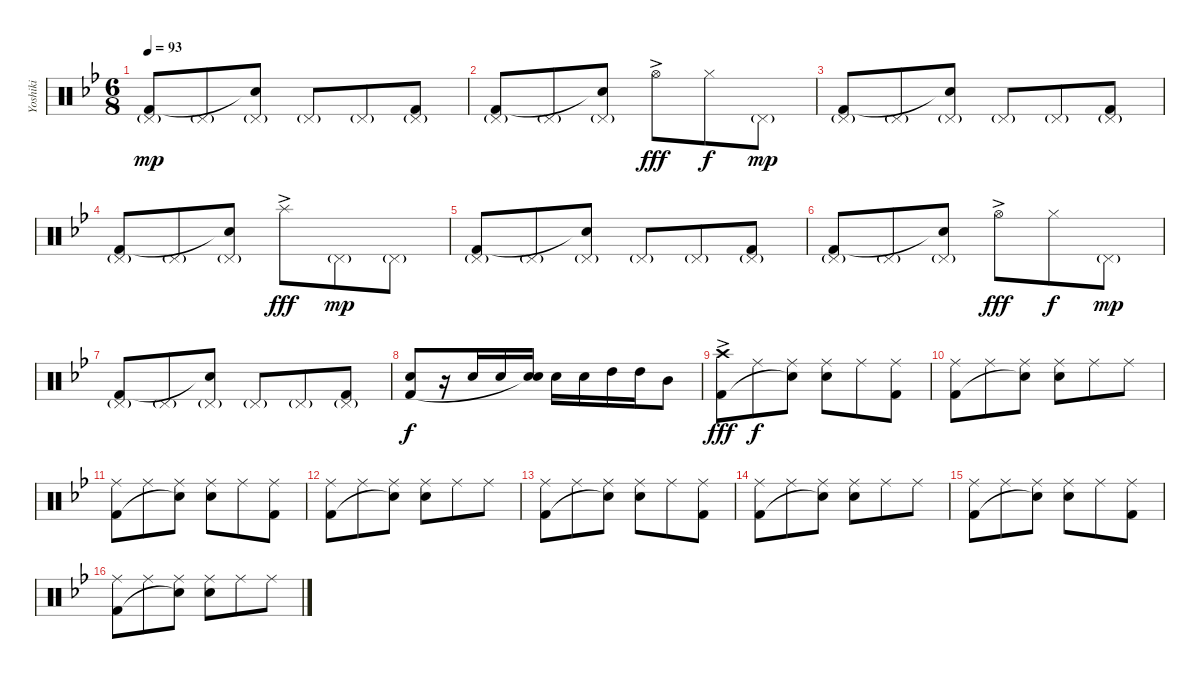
\track ("Yoshiki" "Yoshiki") {instrument percussion}
\staff {score}
\articulation defaults
\ts (6 8)
\tempo 93
\clef neutral
\ks bb
("Pedal Hi-Hat (hit)"{g} "Kick (hit) 2").8{dy mp} "Pedal Hi-Hat (hit)"{g}.8 ("Pedal Hi-Hat (hit)"{g} "Snare (hit)"{t}).8 "Pedal Hi-Hat (hit)"{g}.8 "Pedal Hi-Hat (hit)"{g}.8 ("Pedal Hi-Hat (hit)"{g} "Kick (hit) 2").8 |
("Pedal Hi-Hat (hit)"{g} "Kick (hit) 2").8 "Pedal Hi-Hat (hit)"{g}.8 ("Pedal Hi-Hat (hit)"{g} "Snare (hit)"{t}).8 "Hi-Hat (open)"{ac}.8{dy fff} "Hi-Hat (closed)".8{dy f} "Pedal Hi-Hat (hit)"{g}.8{dy mp} |
("Pedal Hi-Hat (hit)"{g} "Kick (hit) 2").8 "Pedal Hi-Hat (hit)"{g}.8 ("Pedal Hi-Hat (hit)"{g} "Snare (hit)"{t}).8 "Pedal Hi-Hat (hit)"{g}.8 "Pedal Hi-Hat (hit)"{g}.8 ("Pedal Hi-Hat (hit)"{g} "Kick (hit) 2").8 |
("Pedal Hi-Hat (hit)"{g} "Kick (hit) 2").8 "Pedal Hi-Hat (hit)"{g}.8 ("Pedal Hi-Hat (hit)"{g} "Snare (hit)"{t}).8 "Splash (hit)"{ac}.8{dy fff} "Pedal Hi-Hat (hit)"{g}.8{dy mp} "Pedal Hi-Hat (hit)"{g}.8 |
("Pedal Hi-Hat (hit)"{g} "Kick (hit) 2").8 "Pedal Hi-Hat (hit)"{g}.8 ("Pedal Hi-Hat (hit)"{g} "Snare (hit)"{t}).8 "Pedal Hi-Hat (hit)"{g}.8 "Pedal Hi-Hat (hit)"{g}.8 ("Pedal Hi-Hat (hit)"{g} "Kick (hit) 2").8 |
("Pedal Hi-Hat (hit)"{g} "Kick (hit) 2").8 "Pedal Hi-Hat (hit)"{g}.8 ("Pedal Hi-Hat (hit)"{g} "Snare (hit)"{t}).8 "Hi-Hat (open)"{ac}.8{dy fff} "Hi-Hat (closed)".8{dy f} "Pedal Hi-Hat (hit)"{g}.8{dy mp} |
("Pedal Hi-Hat (hit)"{g} "Kick (hit) 2").8 "Pedal Hi-Hat (hit)"{g}.8 ("Pedal Hi-Hat (hit)"{g} "Snare (hit)"{t}).8 "Pedal Hi-Hat (hit)"{g}.8 "Pedal Hi-Hat (hit)"{g}.8 ("Pedal Hi-Hat (hit)"{g} "Kick (hit) 2").8 |
("Snare (hit) 2" "Kick (hit) 2").8{dy f} r.16 "Snare (hit) 2".16 "Snare (hit) 2".16 ("Snare (hit) 2" "Snare (hit)"{t}).16 "Snare (hit) 2".16 "Snare (hit) 2".16 "High Tom (hit)".16 "High Tom (hit)".16 "Mid Tom (hit)".8 |
("Crash high (hit)"{ac} "Kick (hit) 2"{ac}).8{dy fff} "Ride (middle)".8{dy f} ("Ride (middle)" "Snare (hit)"{t}).8 ("Ride (middle)" "Snare (hit) 2").8 "Ride (middle)".8 ("Ride (middle)" "Kick (hit) 2").8 |
("Ride (middle)" "Kick (hit) 2").8 "Ride (middle)".8 ("Ride (middle)" "Snare (hit)"{t}).8 ("Ride (middle)" "Snare (hit) 2").8 "Ride (middle)".8 "Ride (middle)".8 |
("Ride (middle)" "Kick (hit) 2").8 "Ride (middle)".8 ("Ride (middle)" "Snare (hit)"{t}).8 ("Ride (middle)" "Snare (hit) 2").8 "Ride (middle)".8 ("Ride (middle)" "Kick (hit) 2").8 |
("Ride (middle)" "Kick (hit) 2").8 "Ride (middle)".8 ("Ride (middle)" "Snare (hit)"{t}).8 ("Ride (middle)" "Snare (hit) 2").8 "Ride (middle)".8 "Ride (middle)".8 |
("Ride (middle)" "Kick (hit) 2").8 "Ride (middle)".8 ("Ride (middle)" "Snare (hit)"{t}).8 ("Ride (middle)" "Snare (hit) 2").8 "Ride (middle)".8 ("Ride (middle)" "Kick (hit) 2").8 |
("Ride (middle)" "Kick (hit) 2").8 "Ride (middle)".8 ("Ride (middle)" "Snare (hit)"{t}).8 ("Ride (middle)" "Snare (hit) 2").8 "Ride (middle)".8 "Ride (middle)".8 |
("Ride (middle)" "Kick (hit) 2").8 "Ride (middle)".8 ("Ride (middle)" "Snare (hit)"{t}).8 ("Ride (middle)" "Snare (hit) 2").8 "Ride (middle)".8 ("Ride (middle)" "Kick (hit) 2").8 |
("Ride (middle)" "Kick (hit) 2").8 "Ride (middle)".8 ("Ride (middle)" "Snare (hit)"{t}).8 ("Ride (middle)" "Snare (hit) 2").8 "Ride (middle)".8 "Ride (middle)".8
